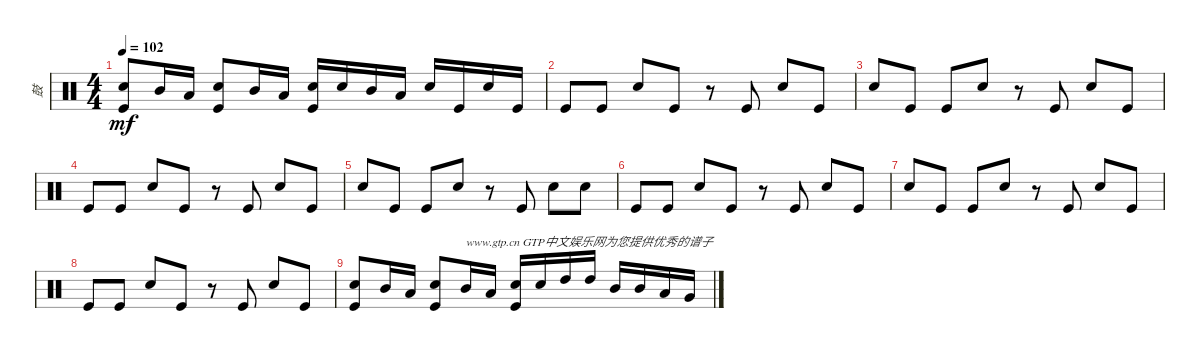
\track ("鼓" "鼓") {instrument percussion}
\staff {score}
\articulation defaults
\ts (4 4)
\tempo 102
\clef neutral
\ks c
("Electric Snare (hit)" "Kick (hit)").8{dy mf} "Mid Tom (hit)".16 "Low Tom (hit)".16 ("Electric Snare (hit)" "Kick (hit)").8 "Mid Tom (hit)".16 "Low Tom (hit)".16 ("Electric Snare (hit)" "Kick (hit)").16 "Electric Snare (hit)".16 "Mid Tom (hit)".16 "Low Tom (hit)".16 "Electric Snare (hit)".16 "Kick (hit)".16 "Electric Snare (hit)".16 "Kick (hit)".16 |
"Kick (hit)".8 "Kick (hit)".8 "Electric Snare (hit)".8 "Kick (hit)".8 r.8 "Kick (hit)".8 "Electric Snare (hit)".8 "Kick (hit)".8 |
"Electric Snare (hit)".8 "Kick (hit)".8 "Kick (hit)".8 "Electric Snare (hit)".8 r.8 "Kick (hit)".8 "Electric Snare (hit)".8 "Kick (hit)".8 |
"Kick (hit)".8 "Kick (hit)".8 "Electric Snare (hit)".8 "Kick (hit)".8 r.8 "Kick (hit)".8 "Electric Snare (hit)".8 "Kick (hit)".8 |
"Electric Snare (hit)".8 "Kick (hit)".8 "Kick (hit)".8 "Electric Snare (hit)".8 r.8 "Kick (hit)".8 "Electric Snare (hit)".8 "Electric Snare (hit)".8 |
"Kick (hit)".8 "Kick (hit)".8 "Electric Snare (hit)".8 "Kick (hit)".8 r.8 "Kick (hit)".8 "Electric Snare (hit)".8 "Kick (hit)".8 |
"Electric Snare (hit)".8 "Kick (hit)".8 "Kick (hit)".8 "Electric Snare (hit)".8 r.8 "Kick (hit)".8 "Electric Snare (hit)".8 "Kick (hit)".8 |
"Kick (hit)".8 "Kick (hit)".8 "Electric Snare (hit)".8 "Kick (hit)".8 r.8 "Kick (hit)".8 "Electric Snare (hit)".8 "Kick (hit)".8 |
("Electric Snare (hit)" "Kick (hit)").8 "Mid Tom (hit)".16 "Low Tom (hit)".16 ("Electric Snare (hit)" "Kick (hit)").8 "Mid Tom (hit)".16{txt "www.gtp.cn GTP中文娱乐网为您提供优秀的谱子"} "Low Tom (hit)".16 ("Electric Snare (hit)" "Kick (hit)").16 "Electric Snare (hit)".16 "High Tom (hit)".16 "High Tom (hit)".16 "Mid Tom (hit)".16 "Mid Tom (hit)".16 "Low Tom (hit)".16 "Very Low Tom (hit)".16
